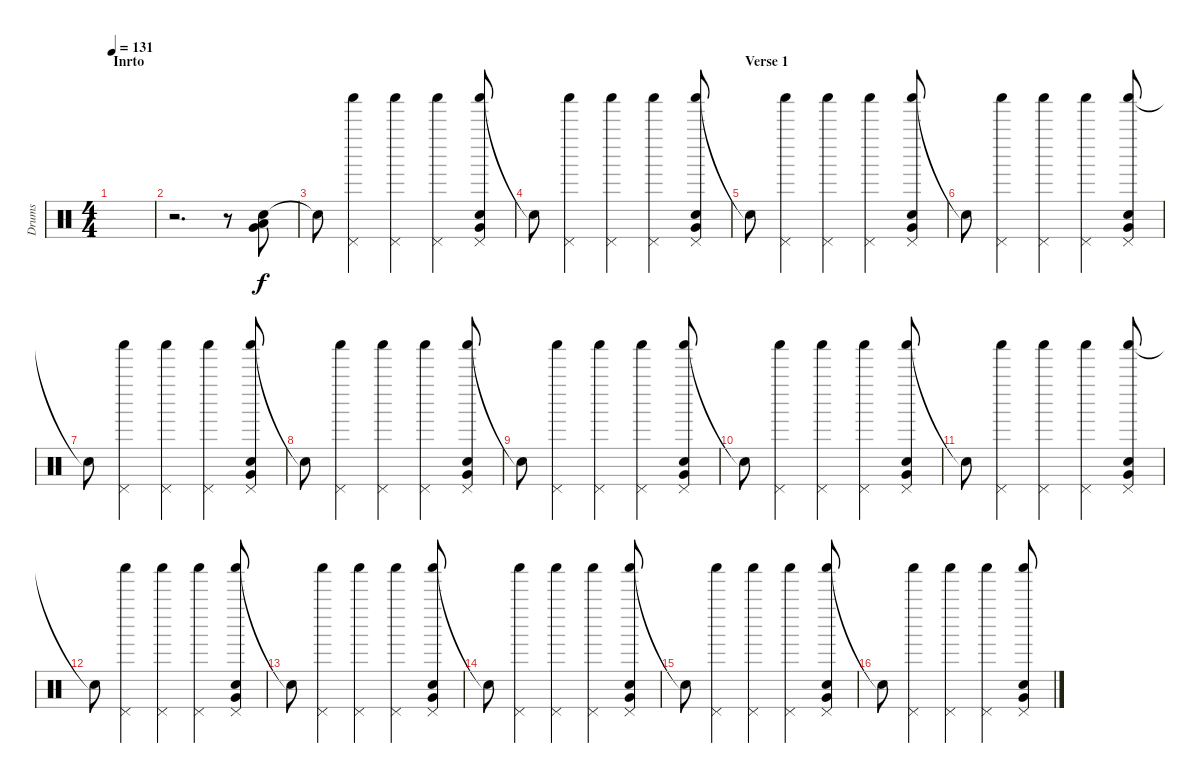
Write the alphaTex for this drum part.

\track ("Drums" "Drums") {instrument percussion}
\staff {score}
\articulation defaults
\ts (4 4)
\section ("" "Inrto")
\tempo 131
\clef neutral
\ks c
|
r.2{d} r.8 ("Snare (hit) 2" "Very Low Tom (hit)" "Low Floor Tom (hit)").8 |
"Snare (hit) 2"{t}.8 ("Shaker (hit)" "Pedal Hi-Hat (hit)").4 ("Shaker (hit)" "Pedal Hi-Hat (hit)").4 ("Shaker (hit)" "Pedal Hi-Hat (hit)").4 ("Shaker (hit)" "Pedal Hi-Hat (hit)" "Snare (hit) 2" "Very Low Tom (hit)").8 |
"Snare (hit) 2"{t}.8 ("Shaker (hit)" "Pedal Hi-Hat (hit)").4 ("Shaker (hit)" "Pedal Hi-Hat (hit)").4 ("Shaker (hit)" "Pedal Hi-Hat (hit)").4 ("Shaker (hit)" "Pedal Hi-Hat (hit)" "Snare (hit) 2" "Very Low Tom (hit)").8 |
\section ("" "Verse 1")
"Snare (hit) 2"{t}.8 ("Shaker (hit)" "Pedal Hi-Hat (hit)").4 ("Shaker (hit)" "Pedal Hi-Hat (hit)").4 ("Shaker (hit)" "Pedal Hi-Hat (hit)").4 ("Shaker (hit)" "Pedal Hi-Hat (hit)" "Snare (hit) 2" "Very Low Tom (hit)").8 |
"Snare (hit) 2"{t}.8 ("Shaker (hit)" "Pedal Hi-Hat (hit)").4 ("Shaker (hit)" "Pedal Hi-Hat (hit)").4 ("Shaker (hit)" "Pedal Hi-Hat (hit)").4 ("Shaker (hit)" "Pedal Hi-Hat (hit)" "Snare (hit) 2" "Very Low Tom (hit)").8 |
"Snare (hit) 2"{t}.8 ("Shaker (hit)" "Pedal Hi-Hat (hit)").4 ("Shaker (hit)" "Pedal Hi-Hat (hit)").4 ("Shaker (hit)" "Pedal Hi-Hat (hit)").4 ("Shaker (hit)" "Pedal Hi-Hat (hit)" "Snare (hit) 2" "Very Low Tom (hit)").8 |
"Snare (hit) 2"{t}.8 ("Shaker (hit)" "Pedal Hi-Hat (hit)").4 ("Shaker (hit)" "Pedal Hi-Hat (hit)").4 ("Shaker (hit)" "Pedal Hi-Hat (hit)").4 ("Shaker (hit)" "Pedal Hi-Hat (hit)" "Snare (hit) 2" "Very Low Tom (hit)").8 |
"Snare (hit) 2"{t}.8 ("Shaker (hit)" "Pedal Hi-Hat (hit)").4 ("Shaker (hit)" "Pedal Hi-Hat (hit)").4 ("Shaker (hit)" "Pedal Hi-Hat (hit)").4 ("Shaker (hit)" "Pedal Hi-Hat (hit)" "Snare (hit) 2" "Very Low Tom (hit)").8 |
"Snare (hit) 2"{t}.8 ("Shaker (hit)" "Pedal Hi-Hat (hit)").4 ("Shaker (hit)" "Pedal Hi-Hat (hit)").4 ("Shaker (hit)" "Pedal Hi-Hat (hit)").4 ("Shaker (hit)" "Pedal Hi-Hat (hit)" "Snare (hit) 2" "Very Low Tom (hit)").8 |
"Snare (hit) 2"{t}.8 ("Shaker (hit)" "Pedal Hi-Hat (hit)").4 ("Shaker (hit)" "Pedal Hi-Hat (hit)").4 ("Shaker (hit)" "Pedal Hi-Hat (hit)").4 ("Shaker (hit)" "Pedal Hi-Hat (hit)" "Snare (hit) 2" "Very Low Tom (hit)").8 |
"Snare (hit) 2"{t}.8 ("Shaker (hit)" "Pedal Hi-Hat (hit)").4 ("Shaker (hit)" "Pedal Hi-Hat (hit)").4 ("Shaker (hit)" "Pedal Hi-Hat (hit)").4 ("Shaker (hit)" "Pedal Hi-Hat (hit)" "Snare (hit) 2" "Very Low Tom (hit)").8 |
"Snare (hit) 2"{t}.8 ("Shaker (hit)" "Pedal Hi-Hat (hit)").4 ("Shaker (hit)" "Pedal Hi-Hat (hit)").4 ("Shaker (hit)" "Pedal Hi-Hat (hit)").4 ("Shaker (hit)" "Pedal Hi-Hat (hit)" "Snare (hit) 2" "Very Low Tom (hit)").8 |
"Snare (hit) 2"{t}.8 ("Shaker (hit)" "Pedal Hi-Hat (hit)").4 ("Shaker (hit)" "Pedal Hi-Hat (hit)").4 ("Shaker (hit)" "Pedal Hi-Hat (hit)").4 ("Shaker (hit)" "Pedal Hi-Hat (hit)" "Snare (hit) 2" "Very Low Tom (hit)").8 |
"Snare (hit) 2"{t}.8 ("Shaker (hit)" "Pedal Hi-Hat (hit)").4 ("Shaker (hit)" "Pedal Hi-Hat (hit)").4 ("Shaker (hit)" "Pedal Hi-Hat (hit)").4 ("Shaker (hit)" "Pedal Hi-Hat (hit)" "Snare (hit) 2" "Very Low Tom (hit)").8 |
"Snare (hit) 2"{t}.8 ("Shaker (hit)" "Pedal Hi-Hat (hit)").4 ("Shaker (hit)" "Pedal Hi-Hat (hit)").4 ("Shaker (hit)" "Pedal Hi-Hat (hit)").4 ("Shaker (hit)" "Pedal Hi-Hat (hit)" "Snare (hit) 2" "Very Low Tom (hit)").8
